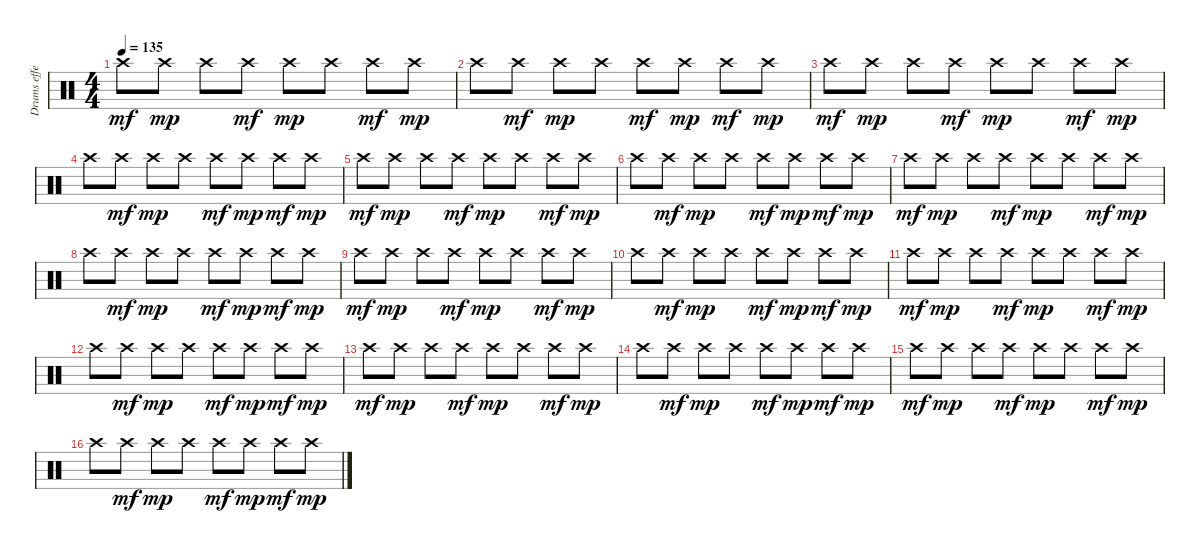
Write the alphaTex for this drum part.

\track ("Drums effects" "Drums effe") {instrument percussion}
\staff {score}
\articulation defaults
\ts (4 4)
\tempo 135
\clef neutral
\ks c "Crash high (hit)".8{dy mf volume 4} "Crash high (hit)".8{dy mp} "Crash high (hit)".8 "Crash high (hit)".8{dy mf} "Crash high (hit)".8{dy mp} "Crash high (hit)".8 "Crash high (hit)".8{dy mf} "Crash high (hit)".8{dy mp}
|
"Crash high (hit)".8 "Crash high (hit)".8{dy mf} "Crash high (hit)".8{dy mp} "Crash high (hit)".8 "Crash high (hit)".8{dy mf} "Crash high (hit)".8{dy mp} "Crash high (hit)".8{dy mf} "Crash high (hit)".8{dy mp} |
"Crash high (hit)".8{dy mf} "Crash high (hit)".8{dy mp} "Crash high (hit)".8 "Crash high (hit)".8{dy mf} "Crash high (hit)".8{dy mp} "Crash high (hit)".8 "Crash high (hit)".8{dy mf} "Crash high (hit)".8{dy mp} |
"Crash high (hit)".8 "Crash high (hit)".8{dy mf} "Crash high (hit)".8{dy mp} "Crash high (hit)".8 "Crash high (hit)".8{dy mf} "Crash high (hit)".8{dy mp} "Crash high (hit)".8{dy mf} "Crash high (hit)".8{dy mp} |
"Crash high (hit)".8{dy mf volume 3} "Crash high (hit)".8{dy mp} "Crash high (hit)".8 "Crash high (hit)".8{dy mf} "Crash high (hit)".8{dy mp} "Crash high (hit)".8 "Crash high (hit)".8{dy mf} "Crash high (hit)".8{dy mp} |
"Crash high (hit)".8 "Crash high (hit)".8{dy mf} "Crash high (hit)".8{dy mp} "Crash high (hit)".8 "Crash high (hit)".8{dy mf} "Crash high (hit)".8{dy mp} "Crash high (hit)".8{dy mf} "Crash high (hit)".8{dy mp} |
"Crash high (hit)".8{dy mf} "Crash high (hit)".8{dy mp} "Crash high (hit)".8 "Crash high (hit)".8{dy mf} "Crash high (hit)".8{dy mp} "Crash high (hit)".8 "Crash high (hit)".8{dy mf} "Crash high (hit)".8{dy mp} |
"Crash high (hit)".8 "Crash high (hit)".8{dy mf} "Crash high (hit)".8{dy mp} "Crash high (hit)".8 "Crash high (hit)".8{dy mf} "Crash high (hit)".8{dy mp} "Crash high (hit)".8{dy mf} "Crash high (hit)".8{dy mp} |
"Crash high (hit)".8{dy mf volume 3} "Crash high (hit)".8{dy mp} "Crash high (hit)".8 "Crash high (hit)".8{dy mf} "Crash high (hit)".8{dy mp} "Crash high (hit)".8 "Crash high (hit)".8{dy mf} "Crash high (hit)".8{dy mp} |
"Crash high (hit)".8 "Crash high (hit)".8{dy mf} "Crash high (hit)".8{dy mp} "Crash high (hit)".8 "Crash high (hit)".8{dy mf} "Crash high (hit)".8{dy mp} "Crash high (hit)".8{dy mf} "Crash high (hit)".8{dy mp} |
"Crash high (hit)".8{dy mf} "Crash high (hit)".8{dy mp} "Crash high (hit)".8 "Crash high (hit)".8{dy mf} "Crash high (hit)".8{dy mp} "Crash high (hit)".8 "Crash high (hit)".8{dy mf} "Crash high (hit)".8{dy mp} |
"Crash high (hit)".8 "Crash high (hit)".8{dy mf} "Crash high (hit)".8{dy mp} "Crash high (hit)".8 "Crash high (hit)".8{dy mf} "Crash high (hit)".8{dy mp} "Crash high (hit)".8{dy mf} "Crash high (hit)".8{dy mp} |
"Crash high (hit)".8{dy mf volume 2} "Crash high (hit)".8{dy mp} "Crash high (hit)".8 "Crash high (hit)".8{dy mf} "Crash high (hit)".8{dy mp} "Crash high (hit)".8 "Crash high (hit)".8{dy mf} "Crash high (hit)".8{dy mp} |
"Crash high (hit)".8 "Crash high (hit)".8{dy mf} "Crash high (hit)".8{dy mp} "Crash high (hit)".8 "Crash high (hit)".8{dy mf} "Crash high (hit)".8{dy mp} "Crash high (hit)".8{dy mf} "Crash high (hit)".8{dy mp} |
"Crash high (hit)".8{dy mf volume 2} "Crash high (hit)".8{dy mp volume 0} "Crash high (hit)".8 "Crash high (hit)".8{dy mf} "Crash high (hit)".8{dy mp} "Crash high (hit)".8 "Crash high (hit)".8{dy mf} "Crash high (hit)".8{dy mp} |
"Crash high (hit)".8 "Crash high (hit)".8{dy mf} "Crash high (hit)".8{dy mp} "Crash high (hit)".8 "Crash high (hit)".8{dy mf} "Crash high (hit)".8{dy mp} "Crash high (hit)".8{dy mf} "Crash high (hit)".8{dy mp}
